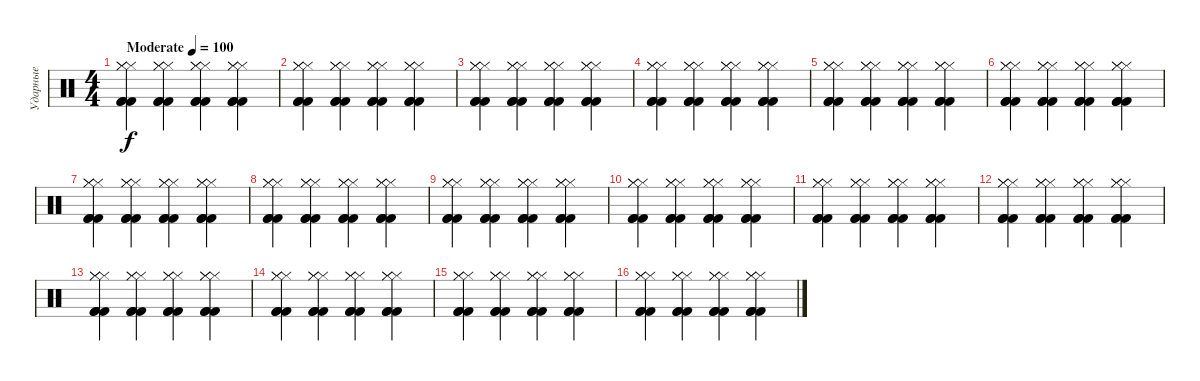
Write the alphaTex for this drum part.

\track ("Ударные" "Ударные") {instrument percussion}
\staff {score}
\articulation defaults
\ts (4 4)
\tempo (100 "Moderate")
\clef neutral
\ks c
("Kick (hit) 2" "Kick (hit) 2" "Kick (hit) 2" "Hi-Hat (closed)" "Hi-Hat (closed)" "Hi-Hat (closed)").4{dy f} ("Kick (hit) 2" "Kick (hit) 2" "Kick (hit) 2" "Hi-Hat (closed)" "Hi-Hat (closed)" "Hi-Hat (closed)").4 ("Kick (hit) 2" "Kick (hit) 2" "Kick (hit) 2" "Hi-Hat (closed)" "Hi-Hat (closed)" "Hi-Hat (closed)").4 ("Kick (hit) 2" "Kick (hit) 2" "Kick (hit) 2" "Hi-Hat (closed)" "Hi-Hat (closed)" "Hi-Hat (closed)").4 |
("Kick (hit) 2" "Kick (hit) 2" "Kick (hit) 2" "Hi-Hat (closed)" "Hi-Hat (closed)" "Hi-Hat (closed)").4 ("Kick (hit) 2" "Kick (hit) 2" "Kick (hit) 2" "Hi-Hat (closed)" "Hi-Hat (closed)" "Hi-Hat (closed)").4 ("Kick (hit) 2" "Kick (hit) 2" "Kick (hit) 2" "Hi-Hat (closed)" "Hi-Hat (closed)" "Hi-Hat (closed)").4 ("Kick (hit) 2" "Kick (hit) 2" "Kick (hit) 2" "Hi-Hat (closed)" "Hi-Hat (closed)" "Hi-Hat (closed)").4 |
("Kick (hit) 2" "Kick (hit) 2" "Kick (hit) 2" "Hi-Hat (closed)" "Hi-Hat (closed)" "Hi-Hat (closed)").4 ("Kick (hit) 2" "Kick (hit) 2" "Kick (hit) 2" "Hi-Hat (closed)" "Hi-Hat (closed)" "Hi-Hat (closed)").4 ("Kick (hit) 2" "Kick (hit) 2" "Kick (hit) 2" "Hi-Hat (closed)" "Hi-Hat (closed)" "Hi-Hat (closed)").4 ("Kick (hit) 2" "Kick (hit) 2" "Kick (hit) 2" "Hi-Hat (closed)" "Hi-Hat (closed)" "Hi-Hat (closed)").4 |
("Kick (hit) 2" "Kick (hit) 2" "Kick (hit) 2" "Hi-Hat (closed)" "Hi-Hat (closed)" "Hi-Hat (closed)").4 ("Kick (hit) 2" "Kick (hit) 2" "Kick (hit) 2" "Hi-Hat (closed)" "Hi-Hat (closed)" "Hi-Hat (closed)").4 ("Kick (hit) 2" "Kick (hit) 2" "Kick (hit) 2" "Hi-Hat (closed)" "Hi-Hat (closed)" "Hi-Hat (closed)").4 ("Kick (hit) 2" "Kick (hit) 2" "Kick (hit) 2" "Hi-Hat (closed)" "Hi-Hat (closed)" "Hi-Hat (closed)").4 |
("Kick (hit) 2" "Kick (hit) 2" "Kick (hit) 2" "Hi-Hat (closed)" "Hi-Hat (closed)" "Hi-Hat (closed)").4 ("Kick (hit) 2" "Kick (hit) 2" "Kick (hit) 2" "Hi-Hat (closed)" "Hi-Hat (closed)" "Hi-Hat (closed)").4 ("Kick (hit) 2" "Kick (hit) 2" "Kick (hit) 2" "Hi-Hat (closed)" "Hi-Hat (closed)" "Hi-Hat (closed)").4 ("Kick (hit) 2" "Kick (hit) 2" "Kick (hit) 2" "Hi-Hat (closed)" "Hi-Hat (closed)" "Hi-Hat (closed)").4 |
("Kick (hit) 2" "Kick (hit) 2" "Kick (hit) 2" "Hi-Hat (closed)" "Hi-Hat (closed)" "Hi-Hat (closed)").4 ("Kick (hit) 2" "Kick (hit) 2" "Kick (hit) 2" "Hi-Hat (closed)" "Hi-Hat (closed)" "Hi-Hat (closed)").4 ("Kick (hit) 2" "Kick (hit) 2" "Kick (hit) 2" "Hi-Hat (closed)" "Hi-Hat (closed)" "Hi-Hat (closed)").4 ("Kick (hit) 2" "Kick (hit) 2" "Kick (hit) 2" "Hi-Hat (closed)" "Hi-Hat (closed)" "Hi-Hat (closed)").4 |
("Kick (hit) 2" "Kick (hit) 2" "Kick (hit) 2" "Hi-Hat (closed)" "Hi-Hat (closed)" "Hi-Hat (closed)").4 ("Kick (hit) 2" "Kick (hit) 2" "Kick (hit) 2" "Hi-Hat (closed)" "Hi-Hat (closed)" "Hi-Hat (closed)").4 ("Kick (hit) 2" "Kick (hit) 2" "Kick (hit) 2" "Hi-Hat (closed)" "Hi-Hat (closed)" "Hi-Hat (closed)").4 ("Kick (hit) 2" "Kick (hit) 2" "Kick (hit) 2" "Hi-Hat (closed)" "Hi-Hat (closed)" "Hi-Hat (closed)").4 |
("Kick (hit) 2" "Kick (hit) 2" "Kick (hit) 2" "Hi-Hat (closed)" "Hi-Hat (closed)" "Hi-Hat (closed)").4 ("Kick (hit) 2" "Kick (hit) 2" "Kick (hit) 2" "Hi-Hat (closed)" "Hi-Hat (closed)" "Hi-Hat (closed)").4 ("Kick (hit) 2" "Kick (hit) 2" "Kick (hit) 2" "Hi-Hat (closed)" "Hi-Hat (closed)" "Hi-Hat (closed)").4 ("Kick (hit) 2" "Kick (hit) 2" "Kick (hit) 2" "Hi-Hat (closed)" "Hi-Hat (closed)" "Hi-Hat (closed)").4 |
("Kick (hit) 2" "Kick (hit) 2" "Kick (hit) 2" "Hi-Hat (closed)" "Hi-Hat (closed)" "Hi-Hat (closed)").4 ("Kick (hit) 2" "Kick (hit) 2" "Kick (hit) 2" "Hi-Hat (closed)" "Hi-Hat (closed)" "Hi-Hat (closed)").4 ("Kick (hit) 2" "Kick (hit) 2" "Kick (hit) 2" "Hi-Hat (closed)" "Hi-Hat (closed)" "Hi-Hat (closed)").4 ("Kick (hit) 2" "Kick (hit) 2" "Kick (hit) 2" "Hi-Hat (closed)" "Hi-Hat (closed)" "Hi-Hat (closed)").4 |
("Kick (hit) 2" "Kick (hit) 2" "Kick (hit) 2" "Hi-Hat (closed)" "Hi-Hat (closed)" "Hi-Hat (closed)").4 ("Kick (hit) 2" "Kick (hit) 2" "Kick (hit) 2" "Hi-Hat (closed)" "Hi-Hat (closed)" "Hi-Hat (closed)").4 ("Kick (hit) 2" "Kick (hit) 2" "Kick (hit) 2" "Hi-Hat (closed)" "Hi-Hat (closed)" "Hi-Hat (closed)").4 ("Kick (hit) 2" "Kick (hit) 2" "Kick (hit) 2" "Hi-Hat (closed)" "Hi-Hat (closed)" "Hi-Hat (closed)").4 |
("Kick (hit) 2" "Kick (hit) 2" "Kick (hit) 2" "Hi-Hat (closed)" "Hi-Hat (closed)" "Hi-Hat (closed)").4 ("Kick (hit) 2" "Kick (hit) 2" "Kick (hit) 2" "Hi-Hat (closed)" "Hi-Hat (closed)" "Hi-Hat (closed)").4 ("Kick (hit) 2" "Kick (hit) 2" "Kick (hit) 2" "Hi-Hat (closed)" "Hi-Hat (closed)" "Hi-Hat (closed)").4 ("Kick (hit) 2" "Kick (hit) 2" "Kick (hit) 2" "Hi-Hat (closed)" "Hi-Hat (closed)" "Hi-Hat (closed)").4 |
("Kick (hit) 2" "Kick (hit) 2" "Kick (hit) 2" "Hi-Hat (closed)" "Hi-Hat (closed)" "Hi-Hat (closed)").4 ("Kick (hit) 2" "Kick (hit) 2" "Kick (hit) 2" "Hi-Hat (closed)" "Hi-Hat (closed)" "Hi-Hat (closed)").4 ("Kick (hit) 2" "Kick (hit) 2" "Kick (hit) 2" "Hi-Hat (closed)" "Hi-Hat (closed)" "Hi-Hat (closed)").4 ("Kick (hit) 2" "Kick (hit) 2" "Kick (hit) 2" "Hi-Hat (closed)" "Hi-Hat (closed)" "Hi-Hat (closed)").4 |
("Kick (hit) 2" "Kick (hit) 2" "Kick (hit) 2" "Hi-Hat (closed)" "Hi-Hat (closed)" "Hi-Hat (closed)").4 ("Kick (hit) 2" "Kick (hit) 2" "Kick (hit) 2" "Hi-Hat (closed)" "Hi-Hat (closed)" "Hi-Hat (closed)").4 ("Kick (hit) 2" "Kick (hit) 2" "Kick (hit) 2" "Hi-Hat (closed)" "Hi-Hat (closed)" "Hi-Hat (closed)").4 ("Kick (hit) 2" "Kick (hit) 2" "Kick (hit) 2" "Hi-Hat (closed)" "Hi-Hat (closed)" "Hi-Hat (closed)").4 |
("Kick (hit) 2" "Kick (hit) 2" "Kick (hit) 2" "Hi-Hat (closed)" "Hi-Hat (closed)" "Hi-Hat (closed)").4 ("Kick (hit) 2" "Kick (hit) 2" "Kick (hit) 2" "Hi-Hat (closed)" "Hi-Hat (closed)" "Hi-Hat (closed)").4 ("Kick (hit) 2" "Kick (hit) 2" "Kick (hit) 2" "Hi-Hat (closed)" "Hi-Hat (closed)" "Hi-Hat (closed)").4 ("Kick (hit) 2" "Kick (hit) 2" "Kick (hit) 2" "Hi-Hat (closed)" "Hi-Hat (closed)" "Hi-Hat (closed)").4 |
("Kick (hit) 2" "Kick (hit) 2" "Kick (hit) 2" "Hi-Hat (closed)" "Hi-Hat (closed)" "Hi-Hat (closed)").4 ("Kick (hit) 2" "Kick (hit) 2" "Kick (hit) 2" "Hi-Hat (closed)" "Hi-Hat (closed)" "Hi-Hat (closed)").4 ("Kick (hit) 2" "Kick (hit) 2" "Kick (hit) 2" "Hi-Hat (closed)" "Hi-Hat (closed)" "Hi-Hat (closed)").4 ("Kick (hit) 2" "Kick (hit) 2" "Kick (hit) 2" "Hi-Hat (closed)" "Hi-Hat (closed)" "Hi-Hat (closed)").4 |
("Kick (hit) 2" "Kick (hit) 2" "Kick (hit) 2" "Hi-Hat (closed)" "Hi-Hat (closed)" "Hi-Hat (closed)").4 ("Kick (hit) 2" "Kick (hit) 2" "Kick (hit) 2" "Hi-Hat (closed)" "Hi-Hat (closed)" "Hi-Hat (closed)").4 ("Kick (hit) 2" "Kick (hit) 2" "Kick (hit) 2" "Hi-Hat (closed)" "Hi-Hat (closed)" "Hi-Hat (closed)").4 ("Kick (hit) 2" "Kick (hit) 2" "Kick (hit) 2" "Hi-Hat (closed)" "Hi-Hat (closed)" "Hi-Hat (closed)").4
